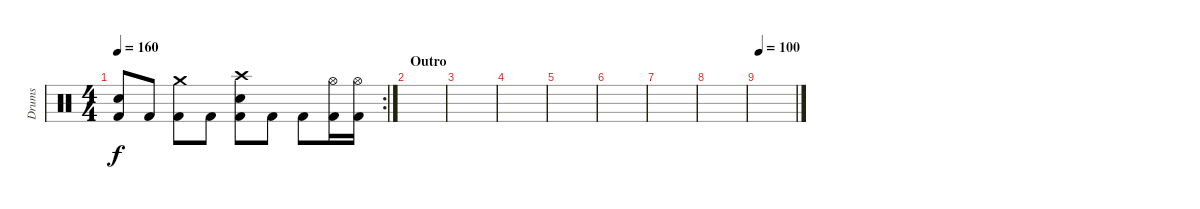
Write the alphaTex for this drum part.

\track ("Drums" "Drums") {instrument percussion}
\staff {score}
\articulation defaults
\rc 2
\ts (4 4)
\tempo 160
\clef neutral
\ks c
("Kick (hit) 2" "Electric Snare (hit)").8{dy f} "Kick (hit) 2".8 ("Kick (hit) 2" "Crash medium (hit)").8 "Kick (hit) 2".8 ("Kick (hit) 2" "Crash high (hit)" "Electric Snare (hit)").8 "Kick (hit) 2".8 "Kick (hit) 2".8 ("Kick (hit) 2" "Hi-Hat (open)").16 ("Kick (hit) 2" "Hi-Hat (open)").16 |
\section ("" "Outro")
|
|
|
|
|
|
|
\tempo 100
